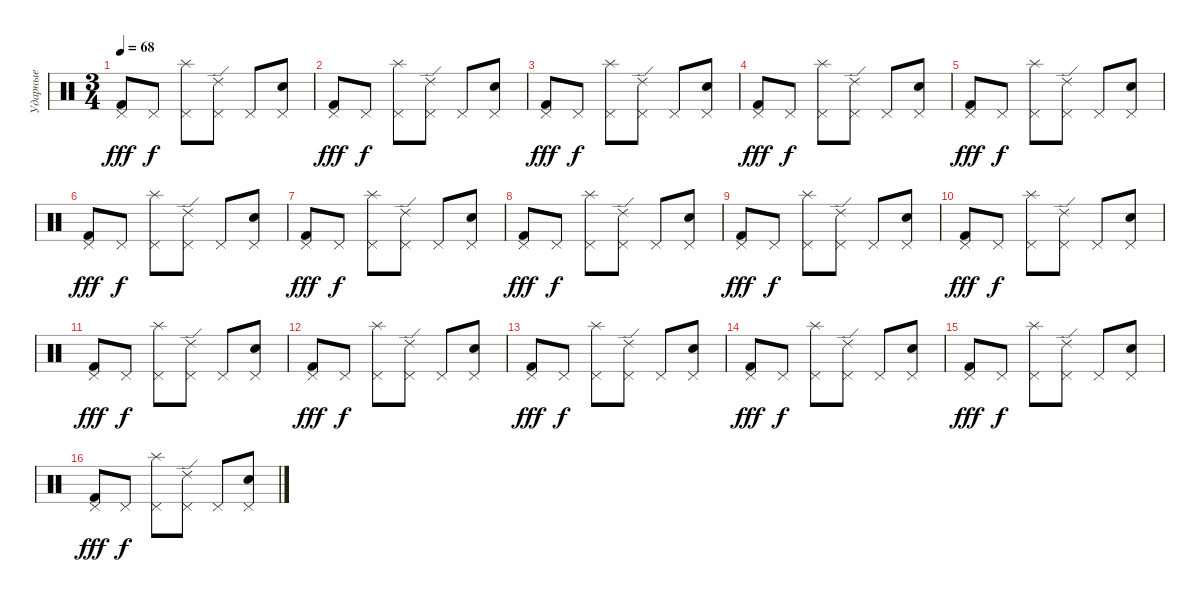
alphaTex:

\track ("Ударные" "Ударные") {instrument percussion}
\staff {score}
\articulation defaults
\ts (3 4)
\tempo 68
\clef neutral
\ks c
("Pedal Hi-Hat (hit)" "Kick (hit) 2").8{dy fff} "Pedal Hi-Hat (hit)".8{dy f} ("Pedal Hi-Hat (hit)" "Splash (hit)").8 ("Pedal Hi-Hat (hit)" "Ride (edge) 2").8 "Pedal Hi-Hat (hit)".8 ("Pedal Hi-Hat (hit)" "Snare (hit) 2").8 |
("Pedal Hi-Hat (hit)" "Kick (hit) 2").8{dy fff} "Pedal Hi-Hat (hit)".8{dy f} ("Pedal Hi-Hat (hit)" "Splash (hit)").8 ("Pedal Hi-Hat (hit)" "Ride (edge) 2").8 "Pedal Hi-Hat (hit)".8 ("Pedal Hi-Hat (hit)" "Snare (hit) 2").8 |
("Pedal Hi-Hat (hit)" "Kick (hit) 2").8{dy fff} "Pedal Hi-Hat (hit)".8{dy f} ("Pedal Hi-Hat (hit)" "Splash (hit)").8 ("Pedal Hi-Hat (hit)" "Ride (edge) 2").8 "Pedal Hi-Hat (hit)".8 ("Pedal Hi-Hat (hit)" "Snare (hit) 2").8 |
("Pedal Hi-Hat (hit)" "Kick (hit) 2").8{dy fff} "Pedal Hi-Hat (hit)".8{dy f} ("Pedal Hi-Hat (hit)" "Splash (hit)").8 ("Pedal Hi-Hat (hit)" "Ride (edge) 2").8 "Pedal Hi-Hat (hit)".8 ("Pedal Hi-Hat (hit)" "Snare (hit) 2").8 |
("Pedal Hi-Hat (hit)" "Kick (hit) 2").8{dy fff} "Pedal Hi-Hat (hit)".8{dy f} ("Pedal Hi-Hat (hit)" "Splash (hit)").8 ("Pedal Hi-Hat (hit)" "Ride (edge) 2").8 "Pedal Hi-Hat (hit)".8 ("Pedal Hi-Hat (hit)" "Snare (hit) 2").8 |
("Pedal Hi-Hat (hit)" "Kick (hit) 2").8{dy fff} "Pedal Hi-Hat (hit)".8{dy f} ("Pedal Hi-Hat (hit)" "Splash (hit)").8 ("Pedal Hi-Hat (hit)" "Ride (edge) 2").8 "Pedal Hi-Hat (hit)".8 ("Pedal Hi-Hat (hit)" "Snare (hit) 2").8 |
("Pedal Hi-Hat (hit)" "Kick (hit) 2").8{dy fff} "Pedal Hi-Hat (hit)".8{dy f} ("Pedal Hi-Hat (hit)" "Splash (hit)").8 ("Pedal Hi-Hat (hit)" "Ride (edge) 2").8 "Pedal Hi-Hat (hit)".8 ("Pedal Hi-Hat (hit)" "Snare (hit) 2").8 |
("Pedal Hi-Hat (hit)" "Kick (hit) 2").8{dy fff} "Pedal Hi-Hat (hit)".8{dy f} ("Pedal Hi-Hat (hit)" "Splash (hit)").8 ("Pedal Hi-Hat (hit)" "Ride (edge) 2").8 "Pedal Hi-Hat (hit)".8 ("Pedal Hi-Hat (hit)" "Snare (hit) 2").8 |
("Pedal Hi-Hat (hit)" "Kick (hit) 2").8{dy fff} "Pedal Hi-Hat (hit)".8{dy f} ("Pedal Hi-Hat (hit)" "Splash (hit)").8 ("Pedal Hi-Hat (hit)" "Ride (edge) 2").8 "Pedal Hi-Hat (hit)".8 ("Pedal Hi-Hat (hit)" "Snare (hit) 2").8 |
("Pedal Hi-Hat (hit)" "Kick (hit) 2").8{dy fff} "Pedal Hi-Hat (hit)".8{dy f} ("Pedal Hi-Hat (hit)" "Splash (hit)").8 ("Pedal Hi-Hat (hit)" "Ride (edge) 2").8 "Pedal Hi-Hat (hit)".8 ("Pedal Hi-Hat (hit)" "Snare (hit) 2").8 |
("Pedal Hi-Hat (hit)" "Kick (hit) 2").8{dy fff} "Pedal Hi-Hat (hit)".8{dy f} ("Pedal Hi-Hat (hit)" "Splash (hit)").8 ("Pedal Hi-Hat (hit)" "Ride (edge) 2").8 "Pedal Hi-Hat (hit)".8 ("Pedal Hi-Hat (hit)" "Snare (hit) 2").8 |
("Pedal Hi-Hat (hit)" "Kick (hit) 2").8{dy fff} "Pedal Hi-Hat (hit)".8{dy f} ("Pedal Hi-Hat (hit)" "Splash (hit)").8 ("Pedal Hi-Hat (hit)" "Ride (edge) 2").8 "Pedal Hi-Hat (hit)".8 ("Pedal Hi-Hat (hit)" "Snare (hit) 2").8 |
("Pedal Hi-Hat (hit)" "Kick (hit) 2").8{dy fff} "Pedal Hi-Hat (hit)".8{dy f} ("Pedal Hi-Hat (hit)" "Splash (hit)").8 ("Pedal Hi-Hat (hit)" "Ride (edge) 2").8 "Pedal Hi-Hat (hit)".8 ("Pedal Hi-Hat (hit)" "Snare (hit) 2").8 |
("Pedal Hi-Hat (hit)" "Kick (hit) 2").8{dy fff} "Pedal Hi-Hat (hit)".8{dy f} ("Pedal Hi-Hat (hit)" "Splash (hit)").8 ("Pedal Hi-Hat (hit)" "Ride (edge) 2").8 "Pedal Hi-Hat (hit)".8 ("Pedal Hi-Hat (hit)" "Snare (hit) 2").8 |
("Pedal Hi-Hat (hit)" "Kick (hit) 2").8{dy fff} "Pedal Hi-Hat (hit)".8{dy f} ("Pedal Hi-Hat (hit)" "Splash (hit)").8 ("Pedal Hi-Hat (hit)" "Ride (edge) 2").8 "Pedal Hi-Hat (hit)".8 ("Pedal Hi-Hat (hit)" "Snare (hit) 2").8 |
("Pedal Hi-Hat (hit)" "Kick (hit) 2").8{dy fff} "Pedal Hi-Hat (hit)".8{dy f} ("Pedal Hi-Hat (hit)" "Splash (hit)").8 ("Pedal Hi-Hat (hit)" "Ride (edge) 2").8 "Pedal Hi-Hat (hit)".8 ("Pedal Hi-Hat (hit)" "Snare (hit) 2").8
